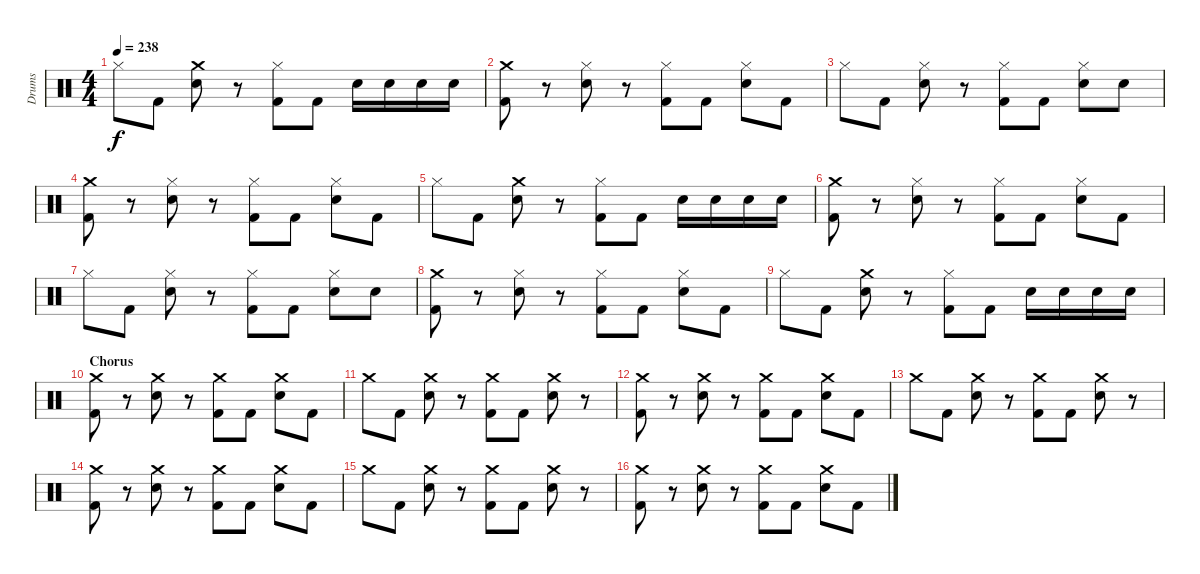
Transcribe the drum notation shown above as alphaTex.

\track ("Drums" "Drums") {instrument percussion}
\staff {score}
\articulation defaults
\ts (4 4)
\tempo 238
\clef neutral
\ks c "Hi-Hat (closed)".8{dy f} "Kick (hit) 2".8
("Crash medium (hit)" "Electric Snare (hit)").8 r.8 ("Hi-Hat (closed)" "Kick (hit) 2").8 "Kick (hit) 2".8 "Electric Snare (hit)".16 "Electric Snare (hit)".16 "Electric Snare (hit)".16 "Electric Snare (hit)".16 |
("Crash medium (hit)" "Kick (hit) 2").8 r.8 ("Hi-Hat (closed)" "Electric Snare (hit)").8 r.8 ("Hi-Hat (closed)" "Kick (hit) 2").8 "Kick (hit) 2".8 ("Hi-Hat (closed)" "Electric Snare (hit)").8 "Kick (hit) 2".8 |
"Hi-Hat (closed)".8 "Kick (hit) 2".8 ("Hi-Hat (closed)" "Electric Snare (hit)").8 r.8 ("Hi-Hat (closed)" "Kick (hit) 2").8 "Kick (hit) 2".8 ("Hi-Hat (closed)" "Electric Snare (hit)").8 "Electric Snare (hit)".8 |
("Crash medium (hit)" "Kick (hit) 2").8 r.8 ("Hi-Hat (closed)" "Electric Snare (hit)").8 r.8 ("Hi-Hat (closed)" "Kick (hit) 2").8 "Kick (hit) 2".8 ("Hi-Hat (closed)" "Electric Snare (hit)").8 "Kick (hit) 2".8 |
"Hi-Hat (closed)".8 "Kick (hit) 2".8 ("Crash medium (hit)" "Electric Snare (hit)").8 r.8 ("Hi-Hat (closed)" "Kick (hit) 2").8 "Kick (hit) 2".8 "Electric Snare (hit)".16 "Electric Snare (hit)".16 "Electric Snare (hit)".16 "Electric Snare (hit)".16 |
("Crash medium (hit)" "Kick (hit) 2").8 r.8 ("Hi-Hat (closed)" "Electric Snare (hit)").8 r.8 ("Hi-Hat (closed)" "Kick (hit) 2").8 "Kick (hit) 2".8 ("Hi-Hat (closed)" "Electric Snare (hit)").8 "Kick (hit) 2".8 |
"Hi-Hat (closed)".8 "Kick (hit) 2".8 ("Hi-Hat (closed)" "Electric Snare (hit)").8 r.8 ("Hi-Hat (closed)" "Kick (hit) 2").8 "Kick (hit) 2".8 ("Hi-Hat (closed)" "Electric Snare (hit)").8 "Electric Snare (hit)".8 |
("Crash medium (hit)" "Kick (hit) 2").8 r.8 ("Hi-Hat (closed)" "Electric Snare (hit)").8 r.8 ("Hi-Hat (closed)" "Kick (hit) 2").8 "Kick (hit) 2".8 ("Hi-Hat (closed)" "Electric Snare (hit)").8 "Kick (hit) 2".8 |
"Hi-Hat (closed)".8 "Kick (hit) 2".8 ("Crash medium (hit)" "Electric Snare (hit)").8 r.8 ("Hi-Hat (closed)" "Kick (hit) 2").8 "Kick (hit) 2".8 "Electric Snare (hit)".16 "Electric Snare (hit)".16 "Electric Snare (hit)".16 "Electric Snare (hit)".16 |
\section ("" "Chorus")
("Crash medium (hit)" "Kick (hit) 2").8 r.8 ("Crash medium (hit)" "Electric Snare (hit)").8 r.8 ("Crash medium (hit)" "Kick (hit) 2").8 "Kick (hit) 2".8 ("Crash medium (hit)" "Electric Snare (hit)").8 "Kick (hit) 2".8 |
"Crash medium (hit)".8 "Kick (hit) 2".8 ("Crash medium (hit)" "Electric Snare (hit)").8 r.8 ("Crash medium (hit)" "Kick (hit) 2").8 "Kick (hit) 2".8 ("Crash medium (hit)" "Electric Snare (hit)").8 r.8 |
("Crash medium (hit)" "Kick (hit) 2").8 r.8 ("Crash medium (hit)" "Electric Snare (hit)").8 r.8 ("Crash medium (hit)" "Kick (hit) 2").8 "Kick (hit) 2".8 ("Crash medium (hit)" "Electric Snare (hit)").8 "Kick (hit) 2".8 |
"Crash medium (hit)".8 "Kick (hit) 2".8 ("Crash medium (hit)" "Electric Snare (hit)").8 r.8 ("Crash medium (hit)" "Kick (hit) 2").8 "Kick (hit) 2".8 ("Crash medium (hit)" "Electric Snare (hit)").8 r.8 |
("Crash medium (hit)" "Kick (hit) 2").8 r.8 ("Crash medium (hit)" "Electric Snare (hit)").8 r.8 ("Crash medium (hit)" "Kick (hit) 2").8 "Kick (hit) 2".8 ("Crash medium (hit)" "Electric Snare (hit)").8 "Kick (hit) 2".8 |
"Crash medium (hit)".8 "Kick (hit) 2".8 ("Crash medium (hit)" "Electric Snare (hit)").8 r.8 ("Crash medium (hit)" "Kick (hit) 2").8 "Kick (hit) 2".8 ("Crash medium (hit)" "Electric Snare (hit)").8 r.8 |
("Crash medium (hit)" "Kick (hit) 2").8 r.8 ("Crash medium (hit)" "Electric Snare (hit)").8 r.8 ("Crash medium (hit)" "Kick (hit) 2").8 "Kick (hit) 2".8 ("Crash medium (hit)" "Electric Snare (hit)").8 "Kick (hit) 2".8
